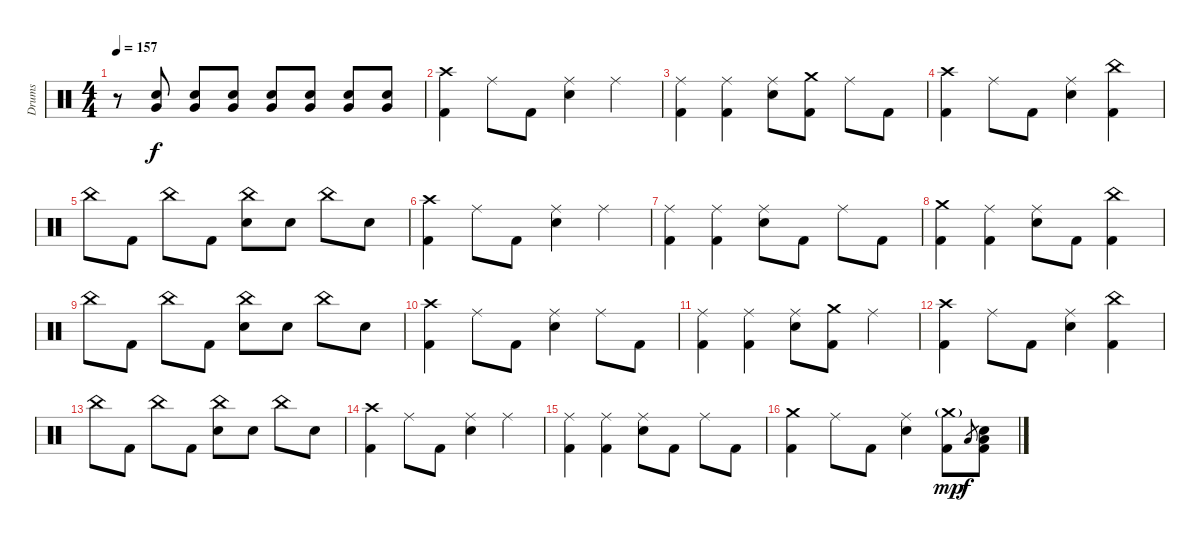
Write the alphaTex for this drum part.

\track ("Drums" "Drums") {instrument percussion}
\staff {score}
\articulation defaults
\ts (4 4)
\tempo 157
\clef neutral
\ks c
r.8{dy f} ("Electric Snare (hit)" "Very Low Tom (hit)").8 ("Electric Snare (hit)" "Very Low Tom (hit)").8 ("Electric Snare (hit)" "Very Low Tom (hit)").8 ("Electric Snare (hit)" "Very Low Tom (hit)").8 ("Electric Snare (hit)" "Very Low Tom (hit)").8 ("Electric Snare (hit)" "Very Low Tom (hit)").8 ("Electric Snare (hit)" "Very Low Tom (hit)").8 |
("Crash high (hit)" "Kick (hit) 2").4 "Ride (middle)".8 "Kick (hit) 2".8 ("Ride (middle)" "Electric Snare (hit)").4 "Ride (middle)".4 |
("Ride (middle)" "Kick (hit) 2").4 ("Ride (middle)" "Kick (hit) 2").4 ("Ride (middle)" "Electric Snare (hit)").8 ("Crash medium (hit)" "Kick (hit) 2").8 "Ride (middle)".8 "Kick (hit) 2".8 |
("Crash high (hit)" "Kick (hit) 2").4 "Ride (middle)".8 "Kick (hit) 2".8 ("Ride (middle)" "Electric Snare (hit)").4 ("China (hit)" "Kick (hit) 2").4 |
"China (hit)".8 "Kick (hit) 2".8 "China (hit)".8 "Kick (hit) 2".8 ("China (hit)" "Electric Snare (hit)").8 "Electric Snare (hit)".8 "China (hit)".8 "Electric Snare (hit)".8 |
("Crash high (hit)" "Kick (hit) 2").4 "Ride (middle)".8 "Kick (hit) 2".8 ("Ride (middle)" "Electric Snare (hit)").4 "Ride (middle)".4 |
("Ride (middle)" "Kick (hit) 2").4 ("Ride (middle)" "Kick (hit) 2").4 ("Ride (middle)" "Electric Snare (hit)").8 "Kick (hit) 2".8 "Ride (middle)".8 "Kick (hit) 2".8 |
("Crash medium (hit)" "Kick (hit) 2").4 ("Ride (middle)" "Kick (hit) 2").4 ("Ride (middle)" "Electric Snare (hit)").8 "Kick (hit) 2".8 ("China (hit)" "Kick (hit) 2").4 |
"China (hit)".8 "Kick (hit) 2".8 "China (hit)".8 "Kick (hit) 2".8 ("China (hit)" "Electric Snare (hit)").8 "Electric Snare (hit)".8 "China (hit)".8 "Electric Snare (hit)".8 |
("Crash high (hit)" "Kick (hit) 2").4 "Ride (middle)".8 "Kick (hit) 2".8 ("Ride (middle)" "Electric Snare (hit)").4 "Ride (middle)".8 "Kick (hit) 2".8 |
("Ride (middle)" "Kick (hit) 2").4 ("Ride (middle)" "Kick (hit) 2").4 ("Ride (middle)" "Electric Snare (hit)").8 ("Crash medium (hit)" "Kick (hit) 2").8 "Ride (middle)".4 |
("Crash high (hit)" "Kick (hit) 2").4 "Ride (middle)".8 "Kick (hit) 2".8 ("Ride (middle)" "Electric Snare (hit)").4 ("China (hit)" "Kick (hit) 2").4 |
"China (hit)".8 "Kick (hit) 2".8 "China (hit)".8 "Kick (hit) 2".8 ("China (hit)" "Electric Snare (hit)").8 "Electric Snare (hit)".8 "China (hit)".8 "Electric Snare (hit)".8 |
("Crash high (hit)" "Kick (hit) 2").4 "Ride (middle)".8 "Kick (hit) 2".8 ("Ride (middle)" "Electric Snare (hit)").4 "Ride (middle)".4 |
("Ride (middle)" "Kick (hit) 2").4 ("Ride (middle)" "Kick (hit) 2").4 ("Ride (middle)" "Electric Snare (hit)").8 "Kick (hit) 2".8 "Ride (middle)".8 "Kick (hit) 2".8 |
("Crash medium (hit)" "Kick (hit) 2").4 "Ride (middle)".8 "Kick (hit) 2".8 ("Ride (middle)" "Electric Snare (hit)").4 ("Crash medium (hit)"{g} "Kick (hit) 2").8{dy mp} "Low Tom (hit)".8{gr dy f} ("Low Tom (hit)" "Electric Snare (hit)" "Kick (hit) 2").8
